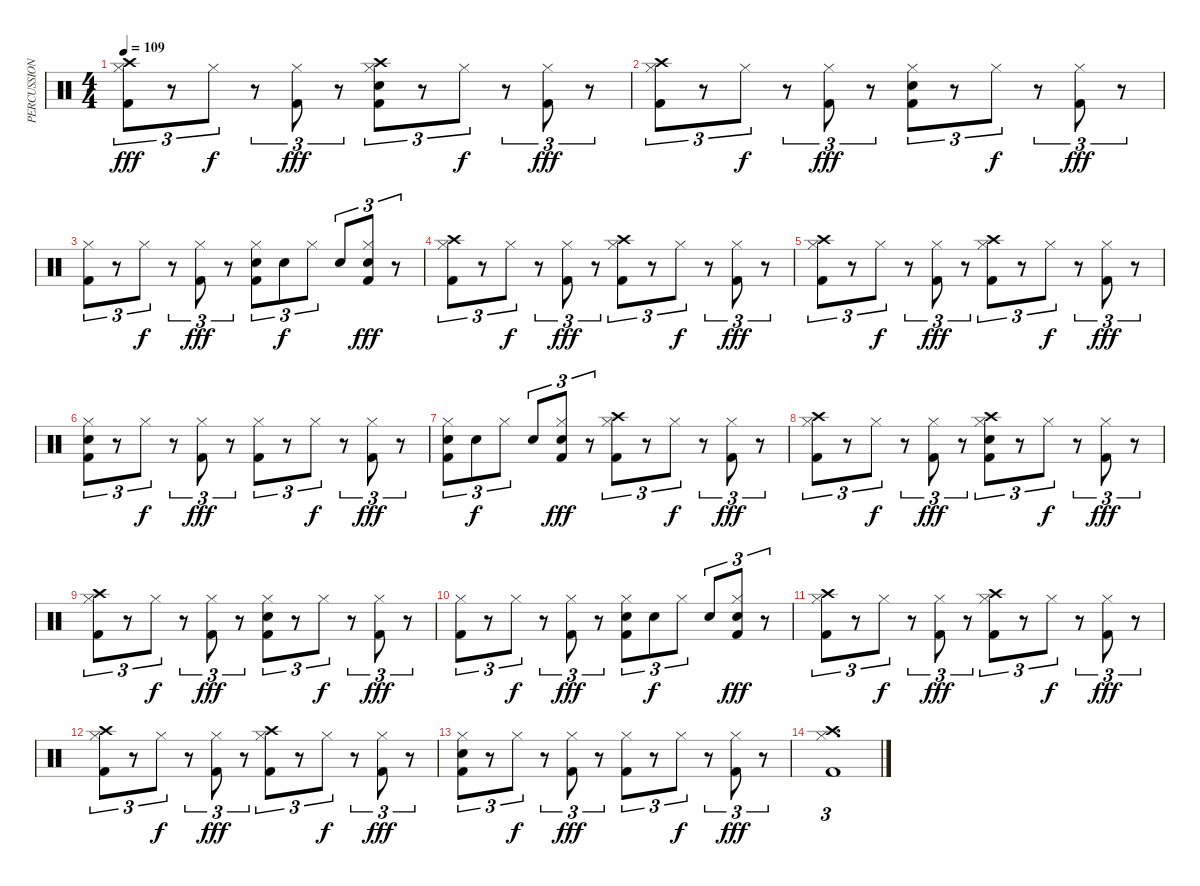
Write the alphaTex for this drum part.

\track ("PERCUSSION" "PERCUSSION") {instrument percussion}
\staff {score}
\articulation defaults
\ts (4 4)
\tempo 109
\clef neutral
\ks c
("Kick (hit) 2" "Hi-Hat (closed)" "Crash high (hit)").8{tu (3 2) dy fff} r.8{tu (3 2)} "Hi-Hat (closed)".8{tu (3 2) dy f} r.8{tu (3 2)} ("Kick (hit) 2" "Hi-Hat (closed)").8{tu (3 2) dy fff} r.8{tu (3 2)} ("Kick (hit) 2" "Hi-Hat (closed)" "Snare (hit) 2" "Crash high (hit)").8{tu (3 2)} r.8{tu (3 2)} "Hi-Hat (closed)".8{tu (3 2) dy f} r.8{tu (3 2)} ("Kick (hit) 2" "Hi-Hat (closed)").8{tu (3 2) dy fff} r.8{tu (3 2)} |
("Kick (hit) 2" "Hi-Hat (closed)" "Crash high (hit)").8{tu (3 2)} r.8{tu (3 2)} "Hi-Hat (closed)".8{tu (3 2) dy f} r.8{tu (3 2)} ("Kick (hit) 2" "Hi-Hat (closed)").8{tu (3 2) dy fff} r.8{tu (3 2)} ("Kick (hit) 2" "Hi-Hat (closed)" "Snare (hit) 2").8{tu (3 2)} r.8{tu (3 2)} "Hi-Hat (closed)".8{tu (3 2) dy f} r.8{tu (3 2)} ("Kick (hit) 2" "Hi-Hat (closed)").8{tu (3 2) dy fff} r.8{tu (3 2)} |
("Kick (hit) 2" "Hi-Hat (closed)").8{tu (3 2)} r.8{tu (3 2)} "Hi-Hat (closed)".8{tu (3 2) dy f} r.8{tu (3 2)} ("Kick (hit) 2" "Hi-Hat (closed)").8{tu (3 2) dy fff} r.8{tu (3 2)} ("Kick (hit) 2" "Hi-Hat (closed)" "Snare (hit) 2").8{tu (3 2)} "Snare (hit) 2".8{tu (3 2) dy f} "Hi-Hat (closed)".8{tu (3 2)} "Snare (hit) 2".8{tu (3 2)} ("Kick (hit) 2" "Hi-Hat (closed)" "Snare (hit) 2").8{tu (3 2) dy fff} r.8{tu (3 2)} |
("Kick (hit) 2" "Hi-Hat (closed)" "Crash high (hit)").8{tu (3 2)} r.8{tu (3 2)} "Hi-Hat (closed)".8{tu (3 2) dy f} r.8{tu (3 2)} ("Kick (hit) 2" "Hi-Hat (closed)").8{tu (3 2) dy fff} r.8{tu (3 2)} ("Kick (hit) 2" "Hi-Hat (closed)" "Crash high (hit)").8{tu (3 2)} r.8{tu (3 2)} "Hi-Hat (closed)".8{tu (3 2) dy f} r.8{tu (3 2)} ("Kick (hit) 2" "Hi-Hat (closed)").8{tu (3 2) dy fff} r.8{tu (3 2)} |
("Kick (hit) 2" "Hi-Hat (closed)" "Crash high (hit)").8{tu (3 2)} r.8{tu (3 2)} "Hi-Hat (closed)".8{tu (3 2) dy f} r.8{tu (3 2)} ("Kick (hit) 2" "Hi-Hat (closed)").8{tu (3 2) dy fff} r.8{tu (3 2)} ("Kick (hit) 2" "Hi-Hat (closed)" "Crash high (hit)").8{tu (3 2)} r.8{tu (3 2)} "Hi-Hat (closed)".8{tu (3 2) dy f} r.8{tu (3 2)} ("Kick (hit) 2" "Hi-Hat (closed)").8{tu (3 2) dy fff} r.8{tu (3 2)} |
("Kick (hit) 2" "Hi-Hat (closed)" "Snare (hit) 2").8{tu (3 2)} r.8{tu (3 2)} "Hi-Hat (closed)".8{tu (3 2) dy f} r.8{tu (3 2)} ("Kick (hit) 2" "Hi-Hat (closed)").8{tu (3 2) dy fff} r.8{tu (3 2)} ("Kick (hit) 2" "Hi-Hat (closed)").8{tu (3 2)} r.8{tu (3 2)} "Hi-Hat (closed)".8{tu (3 2) dy f} r.8{tu (3 2)} ("Kick (hit) 2" "Hi-Hat (closed)").8{tu (3 2) dy fff} r.8{tu (3 2)} |
("Kick (hit) 2" "Hi-Hat (closed)" "Snare (hit) 2").8{tu (3 2)} "Snare (hit) 2".8{tu (3 2) dy f} "Hi-Hat (closed)".8{tu (3 2)} "Snare (hit) 2".8{tu (3 2)} ("Kick (hit) 2" "Hi-Hat (closed)" "Snare (hit) 2").8{tu (3 2) dy fff} r.8{tu (3 2)} ("Kick (hit) 2" "Hi-Hat (closed)" "Crash high (hit)").8{tu (3 2)} r.8{tu (3 2)} "Hi-Hat (closed)".8{tu (3 2) dy f} r.8{tu (3 2)} ("Kick (hit) 2" "Hi-Hat (closed)").8{tu (3 2) dy fff} r.8{tu (3 2)} |
("Kick (hit) 2" "Hi-Hat (closed)" "Crash high (hit)").8{tu (3 2)} r.8{tu (3 2)} "Hi-Hat (closed)".8{tu (3 2) dy f} r.8{tu (3 2)} ("Kick (hit) 2" "Hi-Hat (closed)").8{tu (3 2) dy fff} r.8{tu (3 2)} ("Kick (hit) 2" "Hi-Hat (closed)" "Snare (hit) 2" "Crash high (hit)").8{tu (3 2)} r.8{tu (3 2)} "Hi-Hat (closed)".8{tu (3 2) dy f} r.8{tu (3 2)} ("Kick (hit) 2" "Hi-Hat (closed)").8{tu (3 2) dy fff} r.8{tu (3 2)} |
("Kick (hit) 2" "Hi-Hat (closed)" "Crash high (hit)").8{tu (3 2)} r.8{tu (3 2)} "Hi-Hat (closed)".8{tu (3 2) dy f} r.8{tu (3 2)} ("Kick (hit) 2" "Hi-Hat (closed)").8{tu (3 2) dy fff} r.8{tu (3 2)} ("Kick (hit) 2" "Hi-Hat (closed)" "Snare (hit) 2").8{tu (3 2)} r.8{tu (3 2)} "Hi-Hat (closed)".8{tu (3 2) dy f} r.8{tu (3 2)} ("Kick (hit) 2" "Hi-Hat (closed)").8{tu (3 2) dy fff} r.8{tu (3 2)} |
("Kick (hit) 2" "Hi-Hat (closed)").8{tu (3 2)} r.8{tu (3 2)} "Hi-Hat (closed)".8{tu (3 2) dy f} r.8{tu (3 2)} ("Kick (hit) 2" "Hi-Hat (closed)").8{tu (3 2) dy fff} r.8{tu (3 2)} ("Kick (hit) 2" "Hi-Hat (closed)" "Snare (hit) 2").8{tu (3 2)} "Snare (hit) 2".8{tu (3 2) dy f} "Hi-Hat (closed)".8{tu (3 2)} "Snare (hit) 2".8{tu (3 2)} ("Kick (hit) 2" "Hi-Hat (closed)" "Snare (hit) 2").8{tu (3 2) dy fff} r.8{tu (3 2)} |
("Kick (hit) 2" "Hi-Hat (closed)" "Crash high (hit)").8{tu (3 2)} r.8{tu (3 2)} "Hi-Hat (closed)".8{tu (3 2) dy f} r.8{tu (3 2)} ("Kick (hit) 2" "Hi-Hat (closed)").8{tu (3 2) dy fff} r.8{tu (3 2)} ("Kick (hit) 2" "Hi-Hat (closed)" "Crash high (hit)").8{tu (3 2)} r.8{tu (3 2)} "Hi-Hat (closed)".8{tu (3 2) dy f} r.8{tu (3 2)} ("Kick (hit) 2" "Hi-Hat (closed)").8{tu (3 2) dy fff} r.8{tu (3 2)} |
("Kick (hit) 2" "Hi-Hat (closed)" "Crash high (hit)").8{tu (3 2)} r.8{tu (3 2)} "Hi-Hat (closed)".8{tu (3 2) dy f} r.8{tu (3 2)} ("Kick (hit) 2" "Hi-Hat (closed)").8{tu (3 2) dy fff} r.8{tu (3 2)} ("Kick (hit) 2" "Hi-Hat (closed)" "Crash high (hit)").8{tu (3 2)} r.8{tu (3 2)} "Hi-Hat (closed)".8{tu (3 2) dy f} r.8{tu (3 2)} ("Kick (hit) 2" "Hi-Hat (closed)").8{tu (3 2) dy fff} r.8{tu (3 2)} |
("Kick (hit) 2" "Hi-Hat (closed)" "Snare (hit) 2").8{tu (3 2)} r.8{tu (3 2)} "Hi-Hat (closed)".8{tu (3 2) dy f} r.8{tu (3 2)} ("Kick (hit) 2" "Hi-Hat (closed)").8{tu (3 2) dy fff} r.8{tu (3 2)} ("Kick (hit) 2" "Hi-Hat (closed)").8{tu (3 2)} r.8{tu (3 2)} "Hi-Hat (closed)".8{tu (3 2) dy f} r.8{tu (3 2)} ("Kick (hit) 2" "Hi-Hat (closed)").8{tu (3 2) dy fff} r.8{tu (3 2)} |
("Kick (hit) 2" "Hi-Hat (closed)" "Crash high (hit)").1{d tu (3 2)}
